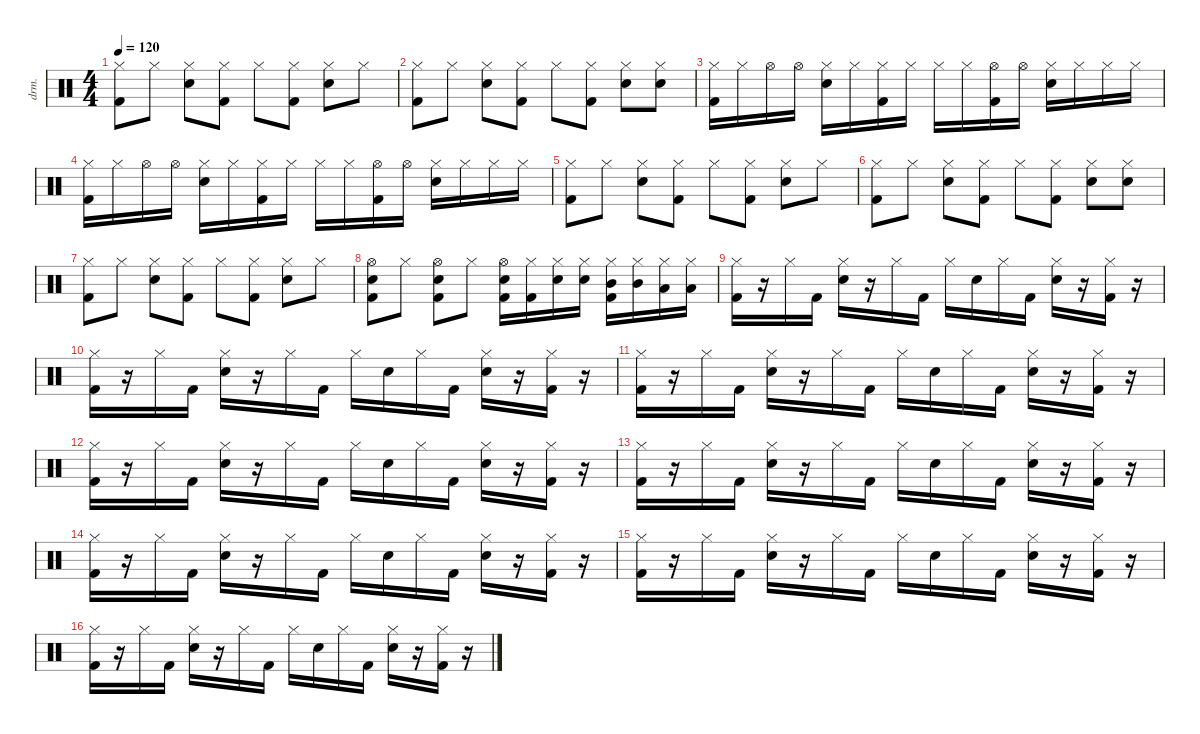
\defaultSystemsLayout 4
\hideDynamics
\bracketExtendMode nobrackets
\otherSystemsTrackNameOrientation horizontal
\track ("Drumkit" "drm.") {instrument percussion}
\staff {score}
\articulation defaults
\ts (4 4)
\tempo 120
\clef neutral
\ks c
("Hi-Hat (closed)" "Kick (hit) 2").8{dy mf beam Down} "Hi-Hat (closed)".8{beam Down} ("Hi-Hat (closed)" "Snare (hit) 2").8{beam Down} ("Hi-Hat (closed)" "Kick (hit) 2").8{beam Down} "Hi-Hat (closed)".8{beam Down} ("Hi-Hat (closed)" "Kick (hit) 2").8{beam Down} ("Hi-Hat (closed)" "Snare (hit) 2").8{beam Down} "Hi-Hat (closed)".8{beam Down} |
("Hi-Hat (closed)" "Kick (hit) 2").8{beam Down} "Hi-Hat (closed)".8{beam Down} ("Hi-Hat (closed)" "Snare (hit) 2").8{beam Down} ("Hi-Hat (closed)" "Kick (hit) 2").8{beam Down} "Hi-Hat (closed)".8{beam Down} ("Hi-Hat (closed)" "Kick (hit) 2").8{beam Down} ("Hi-Hat (closed)" "Snare (hit) 2").8{beam Down} ("Snare (hit) 2" "Hi-Hat (closed)").8{beam Down} |
("Hi-Hat (closed)" "Kick (hit) 2").16{beam Down} "Hi-Hat (closed)".16{beam Down} "Hi-Hat (open)".16{beam Down} "Hi-Hat (open)".16{beam Down} ("Hi-Hat (closed)" "Snare (hit) 2").16{beam Down} "Hi-Hat (closed)".16{beam Down} ("Hi-Hat (closed)" "Kick (hit) 2").16{beam Down} "Hi-Hat (closed)".16{beam Down} "Hi-Hat (closed)".16{beam Down} "Hi-Hat (closed)".16{beam Down} ("Hi-Hat (open)" "Kick (hit) 2").16{beam Down} "Hi-Hat (open)".16{beam Down} ("Hi-Hat (closed)" "Snare (hit) 2").16{beam Down} "Hi-Hat (closed)".16{beam Down} "Hi-Hat (closed)".16{beam Down} "Hi-Hat (closed)".16{beam Down} |
("Hi-Hat (closed)" "Kick (hit) 2").16{beam Down} "Hi-Hat (closed)".16{beam Down} "Hi-Hat (open)".16{beam Down} "Hi-Hat (open)".16{beam Down} ("Hi-Hat (closed)" "Snare (hit) 2").16{beam Down} "Hi-Hat (closed)".16{beam Down} ("Hi-Hat (closed)" "Kick (hit) 2").16{beam Down} "Hi-Hat (closed)".16{beam Down} "Hi-Hat (closed)".16{beam Down} "Hi-Hat (closed)".16{beam Down} ("Hi-Hat (open)" "Kick (hit) 2").16{beam Down} "Hi-Hat (open)".16{beam Down} ("Hi-Hat (closed)" "Snare (hit) 2").16{beam Down} "Hi-Hat (closed)".16{beam Down} "Hi-Hat (closed)".16{beam Down} "Hi-Hat (closed)".16{beam Down} |
("Hi-Hat (closed)" "Kick (hit) 2").8{beam Down} "Hi-Hat (closed)".8{beam Down} ("Hi-Hat (closed)" "Snare (hit) 2").8{beam Down} ("Hi-Hat (closed)" "Kick (hit) 2").8{beam Down} "Hi-Hat (closed)".8{beam Down} ("Hi-Hat (closed)" "Kick (hit) 2").8{beam Down} ("Hi-Hat (closed)" "Snare (hit) 2").8{beam Down} "Hi-Hat (closed)".8{beam Down} |
("Hi-Hat (closed)" "Kick (hit) 2").8{beam Down} "Hi-Hat (closed)".8{beam Down} ("Hi-Hat (closed)" "Snare (hit) 2").8{beam Down} ("Hi-Hat (closed)" "Kick (hit) 2").8{beam Down} "Hi-Hat (closed)".8{beam Down} ("Hi-Hat (closed)" "Kick (hit) 2").8{beam Down} ("Hi-Hat (closed)" "Snare (hit) 2").8{beam Down} ("Snare (hit) 2" "Hi-Hat (closed)").8{beam Down} |
("Hi-Hat (closed)" "Kick (hit) 2").8{beam Down} "Hi-Hat (closed)".8{beam Down} ("Hi-Hat (closed)" "Snare (hit) 2").8{beam Down} ("Hi-Hat (closed)" "Kick (hit) 2").8{beam Down} "Hi-Hat (closed)".8{beam Down} ("Hi-Hat (closed)" "Kick (hit) 2").8{beam Down} ("Hi-Hat (closed)" "Snare (hit) 2").8{beam Down} "Hi-Hat (closed)".8{beam Down} |
("Hi-Hat (open)" "Snare (hit) 2" "Kick (hit) 2").8{beam Down} "Hi-Hat (closed)".8{beam Down} ("Hi-Hat (open)" "Snare (hit) 2" "Kick (hit) 2").8{beam Down} "Hi-Hat (closed)".8{beam Down} ("Hi-Hat (open)" "Kick (hit) 2" "Snare (hit) 2").16{beam Down} ("Hi-Hat (closed)" "Kick (hit) 2").16{beam Down} ("Hi-Hat (closed)" "Snare (hit) 2").16{beam Down} ("Snare (hit) 2" "Hi-Hat (closed)").16{beam Down} ("Mid Tom (hit)" "Kick (hit) 2" "Hi-Hat (closed)").16{beam Down} ("Mid Tom (hit)" "Hi-Hat (closed)").16{beam Down} ("Low Tom (hit)" "Hi-Hat (closed)").16{beam Down} ("Low Tom (hit)" "Hi-Hat (closed)").16{beam Down} |
("Hi-Hat (closed)" "Kick (hit) 2").16{beam Down} r.16{beam Down} "Hi-Hat (closed)".16{beam Down} "Kick (hit) 2".16{beam Down} ("Hi-Hat (closed)" "Snare (hit) 2").16{beam Down} r.16{beam Down} "Hi-Hat (closed)".16{beam Down} "Kick (hit) 2".16{beam Down} "Hi-Hat (closed)".16{beam Down} "Snare (hit) 2".16{beam Down} "Hi-Hat (closed)".16{beam Down} "Kick (hit) 2".16{beam Down} ("Hi-Hat (closed)" "Snare (hit) 2").16{beam Down} r.16{beam Down} ("Hi-Hat (closed)" "Kick (hit) 2").16{beam Down} r.16{beam Down} |
("Hi-Hat (closed)" "Kick (hit) 2").16{beam Down} r.16{beam Down} "Hi-Hat (closed)".16{beam Down} "Kick (hit) 2".16{beam Down} ("Hi-Hat (closed)" "Snare (hit) 2").16{beam Down} r.16{beam Down} "Hi-Hat (closed)".16{beam Down} "Kick (hit) 2".16{beam Down} "Hi-Hat (closed)".16{beam Down} "Snare (hit) 2".16{beam Down} "Hi-Hat (closed)".16{beam Down} "Kick (hit) 2".16{beam Down} ("Hi-Hat (closed)" "Snare (hit) 2").16{beam Down} r.16{beam Down} ("Hi-Hat (closed)" "Kick (hit) 2").16{beam Down} r.16{beam Down} |
("Hi-Hat (closed)" "Kick (hit) 2").16{beam Down} r.16{beam Down} "Hi-Hat (closed)".16{beam Down} "Kick (hit) 2".16{beam Down} ("Hi-Hat (closed)" "Snare (hit) 2").16{beam Down} r.16{beam Down} "Hi-Hat (closed)".16{beam Down} "Kick (hit) 2".16{beam Down} "Hi-Hat (closed)".16{beam Down} "Snare (hit) 2".16{beam Down} "Hi-Hat (closed)".16{beam Down} "Kick (hit) 2".16{beam Down} ("Hi-Hat (closed)" "Snare (hit) 2").16{beam Down} r.16{beam Down} ("Hi-Hat (closed)" "Kick (hit) 2").16{beam Down} r.16{beam Down} |
("Hi-Hat (closed)" "Kick (hit) 2").16{beam Down} r.16{beam Down} "Hi-Hat (closed)".16{beam Down} "Kick (hit) 2".16{beam Down} ("Hi-Hat (closed)" "Snare (hit) 2").16{beam Down} r.16{beam Down} "Hi-Hat (closed)".16{beam Down} "Kick (hit) 2".16{beam Down} "Hi-Hat (closed)".16{beam Down} "Snare (hit) 2".16{beam Down} "Hi-Hat (closed)".16{beam Down} "Kick (hit) 2".16{beam Down} ("Hi-Hat (closed)" "Snare (hit) 2").16{beam Down} r.16{beam Down} ("Hi-Hat (closed)" "Kick (hit) 2").16{beam Down} r.16{beam Down} |
("Hi-Hat (closed)" "Kick (hit) 2").16{beam Down} r.16{beam Down} "Hi-Hat (closed)".16{beam Down} "Kick (hit) 2".16{beam Down} ("Hi-Hat (closed)" "Snare (hit) 2").16{beam Down} r.16{beam Down} "Hi-Hat (closed)".16{beam Down} "Kick (hit) 2".16{beam Down} "Hi-Hat (closed)".16{beam Down} "Snare (hit) 2".16{beam Down} "Hi-Hat (closed)".16{beam Down} "Kick (hit) 2".16{beam Down} ("Hi-Hat (closed)" "Snare (hit) 2").16{beam Down} r.16{beam Down} ("Hi-Hat (closed)" "Kick (hit) 2").16{beam Down} r.16{beam Down} |
("Hi-Hat (closed)" "Kick (hit) 2").16{beam Down} r.16{beam Down} "Hi-Hat (closed)".16{beam Down} "Kick (hit) 2".16{beam Down} ("Hi-Hat (closed)" "Snare (hit) 2").16{beam Down} r.16{beam Down} "Hi-Hat (closed)".16{beam Down} "Kick (hit) 2".16{beam Down} "Hi-Hat (closed)".16{beam Down} "Snare (hit) 2".16{beam Down} "Hi-Hat (closed)".16{beam Down} "Kick (hit) 2".16{beam Down} ("Hi-Hat (closed)" "Snare (hit) 2").16{beam Down} r.16{beam Down} ("Hi-Hat (closed)" "Kick (hit) 2").16{beam Down} r.16{beam Down} |
("Hi-Hat (closed)" "Kick (hit) 2").16{beam Down} r.16{beam Down} "Hi-Hat (closed)".16{beam Down} "Kick (hit) 2".16{beam Down} ("Hi-Hat (closed)" "Snare (hit) 2").16{beam Down} r.16{beam Down} "Hi-Hat (closed)".16{beam Down} "Kick (hit) 2".16{beam Down} "Hi-Hat (closed)".16{beam Down} "Snare (hit) 2".16{beam Down} "Hi-Hat (closed)".16{beam Down} "Kick (hit) 2".16{beam Down} ("Hi-Hat (closed)" "Snare (hit) 2").16{beam Down} r.16{beam Down} ("Hi-Hat (closed)" "Kick (hit) 2").16{beam Down} r.16{beam Down} |
("Hi-Hat (closed)" "Kick (hit) 2").16{beam Down} r.16{beam Down} "Hi-Hat (closed)".16{beam Down} "Kick (hit) 2".16{beam Down} ("Hi-Hat (closed)" "Snare (hit) 2").16{beam Down} r.16{beam Down} "Hi-Hat (closed)".16{beam Down} "Kick (hit) 2".16{beam Down} "Hi-Hat (closed)".16{beam Down} "Snare (hit) 2".16{beam Down} "Hi-Hat (closed)".16{beam Down} "Kick (hit) 2".16{beam Down} ("Hi-Hat (closed)" "Snare (hit) 2").16{beam Down} r.16{beam Down} ("Hi-Hat (closed)" "Kick (hit) 2").16{beam Down} r.16{beam Down}
